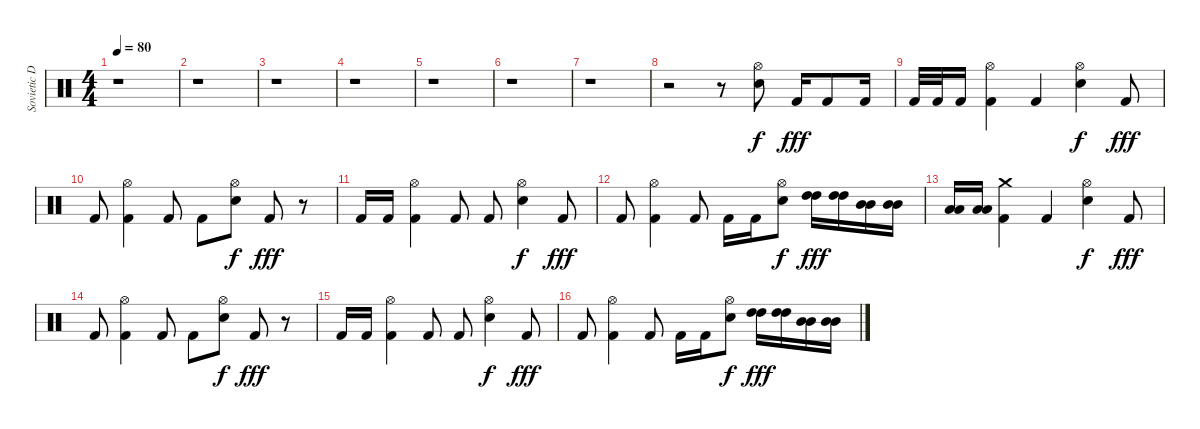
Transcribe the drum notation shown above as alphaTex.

\track ("Sovietic Drummer" "Sovietic D") {instrument percussion}
\staff {score}
\articulation defaults
\ts (4 4)
\tempo 80
\clef neutral
\ks c
r.1{dy f} |
r.1 |
r.1 |
r.1 |
r.1 |
r.1 |
r.1 |
r.2 r.8 ("Hi-Hat (open)" "Snare (hit) 2").8 "Kick (hit) 2".16{dy fff} "Kick (hit) 2".8 "Kick (hit) 2".16 |
"Kick (hit) 2".32 "Kick (hit) 2".32 "Kick (hit) 2".16 ("Hi-Hat (open)" "Kick (hit) 2").4 "Kick (hit) 2".4 ("Hi-Hat (open)" "Electric Snare (hit)").4{dy f} "Kick (hit) 2".8{dy fff} |
"Kick (hit) 2".8 ("Hi-Hat (open)" "Kick (hit) 2").4 "Kick (hit) 2".8 "Kick (hit) 2".8 ("Hi-Hat (open)" "Snare (hit) 2").8{dy f} "Kick (hit) 2".8{dy fff} r.8 |
"Kick (hit) 2".16 "Kick (hit) 2".16 ("Hi-Hat (open)" "Kick (hit) 2").4 "Kick (hit) 2".8 "Kick (hit) 2".8 ("Hi-Hat (open)" "Electric Snare (hit)").4{dy f} "Kick (hit) 2".8{dy fff} |
"Kick (hit) 2".8 ("Hi-Hat (open)" "Kick (hit) 2").4 "Kick (hit) 2".8 "Kick (hit) 2".16 "Kick (hit) 2".16 ("Hi-Hat (open)" "Snare (hit) 2").8{dy f} ("High Tom (hit)" "High Tom (hit)").16{dy fff} ("High Tom (hit)" "High Tom (hit)").16 ("Mid Tom (hit)" "Mid Tom (hit)").16 ("Mid Tom (hit)" "Mid Tom (hit)").16 |
("Low Tom (hit)" "Low Tom (hit)").16 ("Low Tom (hit)" "Low Tom (hit)").16 ("Crash medium (hit)" "Kick (hit) 2").4 "Kick (hit) 2".4 ("Hi-Hat (open)" "Electric Snare (hit)").4{dy f} "Kick (hit) 2".8{dy fff} |
"Kick (hit) 2".8 ("Hi-Hat (open)" "Kick (hit) 2").4 "Kick (hit) 2".8 "Kick (hit) 2".8 ("Hi-Hat (open)" "Snare (hit) 2").8{dy f} "Kick (hit) 2".8{dy fff} r.8 |
"Kick (hit) 2".16 "Kick (hit) 2".16 ("Hi-Hat (open)" "Kick (hit) 2").4 "Kick (hit) 2".8 "Kick (hit) 2".8 ("Hi-Hat (open)" "Electric Snare (hit)").4{dy f} "Kick (hit) 2".8{dy fff} |
"Kick (hit) 2".8 ("Hi-Hat (open)" "Kick (hit) 2").4 "Kick (hit) 2".8 "Kick (hit) 2".16 "Kick (hit) 2".16 ("Hi-Hat (open)" "Snare (hit) 2").8{dy f} ("High Tom (hit)" "High Tom (hit)").16{dy fff} ("High Tom (hit)" "High Tom (hit)").16 ("Mid Tom (hit)" "Mid Tom (hit)").16 ("Mid Tom (hit)" "Mid Tom (hit)").16
